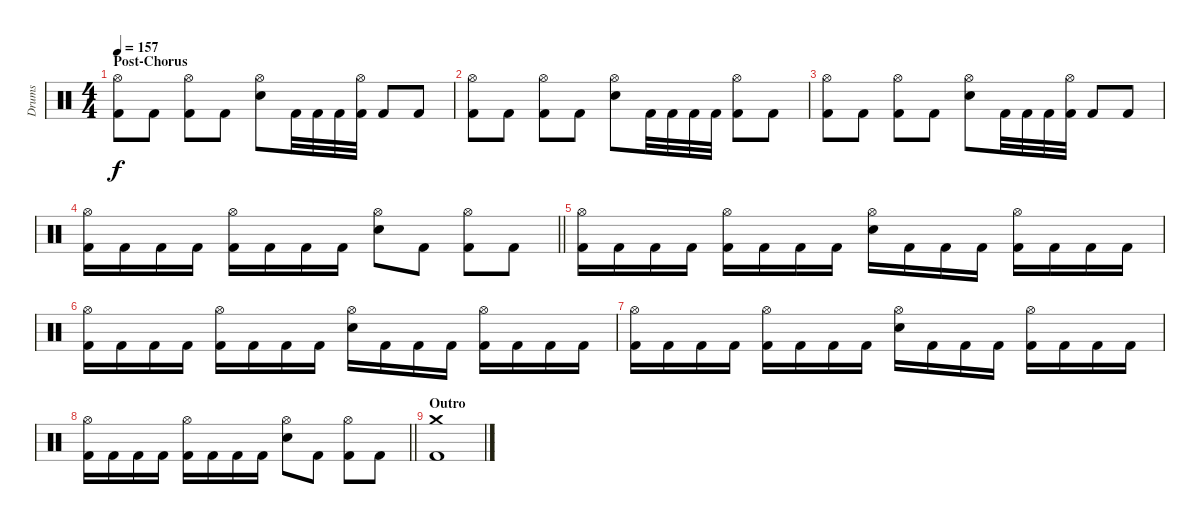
\track ("Drums" "Drums") {instrument percussion}
\staff {score}
\articulation defaults
\ts (4 4)
\section ("" "Post-Chorus")
\tempo 157
\clef neutral
\ks c
("Hi-Hat (open)" "Kick (hit) 2").8{dy f} "Kick (hit) 2".8 ("Hi-Hat (open)" "Kick (hit) 2").8 "Kick (hit) 2".8 ("Hi-Hat (open)" "Electric Snare (hit)").8 "Kick (hit) 2".32 "Kick (hit) 2".32 "Kick (hit) 2".32 ("Hi-Hat (open)" "Kick (hit) 2").32 "Kick (hit) 2".8 "Kick (hit) 2".8 |
("Hi-Hat (open)" "Kick (hit) 2").8 "Kick (hit) 2".8 ("Hi-Hat (open)" "Kick (hit) 2").8 "Kick (hit) 2".8 ("Hi-Hat (open)" "Electric Snare (hit)").8 "Kick (hit) 2".32 "Kick (hit) 2".32 "Kick (hit) 2".32 "Kick (hit) 2".32 ("Hi-Hat (open)" "Kick (hit) 2").8 "Kick (hit) 2".8 |
("Hi-Hat (open)" "Kick (hit) 2").8 "Kick (hit) 2".8 ("Hi-Hat (open)" "Kick (hit) 2").8 "Kick (hit) 2".8 ("Hi-Hat (open)" "Electric Snare (hit)").8 "Kick (hit) 2".32 "Kick (hit) 2".32 "Kick (hit) 2".32 ("Hi-Hat (open)" "Kick (hit) 2").32 "Kick (hit) 2".8 "Kick (hit) 2".8 |
\barLineRight lightlight
("Hi-Hat (open)" "Kick (hit) 2").16 "Kick (hit) 2".16 "Kick (hit) 2".16 "Kick (hit) 2".16 ("Hi-Hat (open)" "Kick (hit) 2").16 "Kick (hit) 2".16 "Kick (hit) 2".16 "Kick (hit) 2".16 ("Hi-Hat (open)" "Electric Snare (hit)").8 "Kick (hit) 2".8 ("Hi-Hat (open)" "Kick (hit) 2").8 "Kick (hit) 2".8 |
("Hi-Hat (open)" "Kick (hit) 2").16 "Kick (hit) 2".16 "Kick (hit) 2".16 "Kick (hit) 2".16 ("Hi-Hat (open)" "Kick (hit) 2").16 "Kick (hit) 2".16 "Kick (hit) 2".16 "Kick (hit) 2".16 ("Hi-Hat (open)" "Electric Snare (hit)").16 "Kick (hit) 2".16 "Kick (hit) 2".16 "Kick (hit) 2".16 ("Hi-Hat (open)" "Kick (hit) 2").16 "Kick (hit) 2".16 "Kick (hit) 2".16 "Kick (hit) 2".16 |
("Hi-Hat (open)" "Kick (hit) 2").16 "Kick (hit) 2".16 "Kick (hit) 2".16 "Kick (hit) 2".16 ("Hi-Hat (open)" "Kick (hit) 2").16 "Kick (hit) 2".16 "Kick (hit) 2".16 "Kick (hit) 2".16 ("Hi-Hat (open)" "Electric Snare (hit)").16 "Kick (hit) 2".16 "Kick (hit) 2".16 "Kick (hit) 2".16 ("Hi-Hat (open)" "Kick (hit) 2").16 "Kick (hit) 2".16 "Kick (hit) 2".16 "Kick (hit) 2".16 |
("Hi-Hat (open)" "Kick (hit) 2").16 "Kick (hit) 2".16 "Kick (hit) 2".16 "Kick (hit) 2".16 ("Hi-Hat (open)" "Kick (hit) 2").16 "Kick (hit) 2".16 "Kick (hit) 2".16 "Kick (hit) 2".16 ("Hi-Hat (open)" "Electric Snare (hit)").16 "Kick (hit) 2".16 "Kick (hit) 2".16 "Kick (hit) 2".16 ("Hi-Hat (open)" "Kick (hit) 2").16 "Kick (hit) 2".16 "Kick (hit) 2".16 "Kick (hit) 2".16 |
\barLineRight lightlight
("Hi-Hat (open)" "Kick (hit) 2").16 "Kick (hit) 2".16 "Kick (hit) 2".16 "Kick (hit) 2".16 ("Hi-Hat (open)" "Kick (hit) 2").16 "Kick (hit) 2".16 "Kick (hit) 2".16 "Kick (hit) 2".16 ("Hi-Hat (open)" "Electric Snare (hit)").8 "Kick (hit) 2".8 ("Hi-Hat (open)" "Kick (hit) 2").8 "Kick (hit) 2".8 |
\section ("" "Outro")
("Crash medium (hit)" "Kick (hit) 2").1
